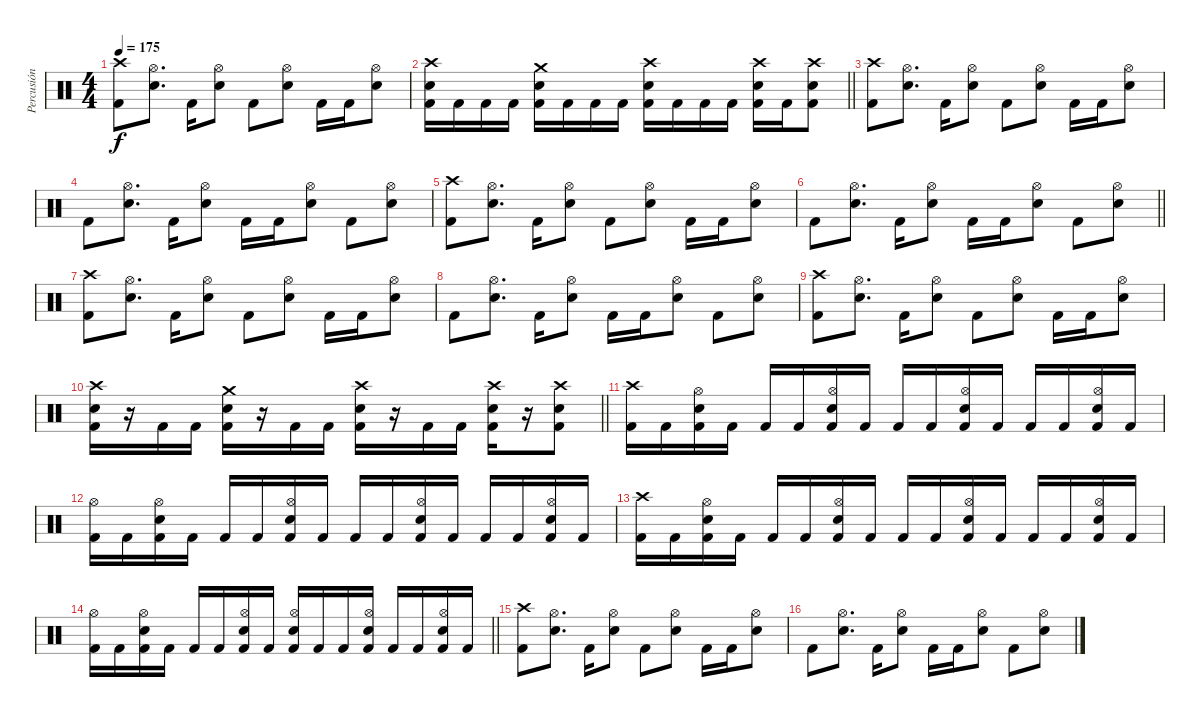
\track ("Percusión" "Percusión") {instrument percussion}
\staff {score}
\articulation defaults
\ts (4 4)
\tempo 175
\clef neutral
\ks c
("Crash high (hit)" "Kick (hit) 2").8{dy f} ("Hi-Hat (open)" "Electric Snare (hit)").8{d} "Kick (hit) 2".16 ("Hi-Hat (open)" "Electric Snare (hit)").8 "Kick (hit) 2".8 ("Hi-Hat (open)" "Electric Snare (hit)").8 "Kick (hit) 2".16 "Kick (hit) 2".16 ("Hi-Hat (open)" "Electric Snare (hit)").8 |
\barLineRight lightlight
("Crash high (hit)" "Electric Snare (hit)" "Kick (hit) 2").16 "Kick (hit) 2".16 "Kick (hit) 2".16 "Kick (hit) 2".16 ("Crash medium (hit)" "Electric Snare (hit)" "Kick (hit) 2").16 "Kick (hit) 2".16 "Kick (hit) 2".16 "Kick (hit) 2".16 ("Crash high (hit)" "Electric Snare (hit)" "Kick (hit) 2").16 "Kick (hit) 2".16 "Kick (hit) 2".16 "Kick (hit) 2".16 ("Crash high (hit)" "Electric Snare (hit)" "Kick (hit) 2").16 "Kick (hit) 2".16 ("Crash high (hit)" "Electric Snare (hit)" "Kick (hit) 2").8 |
("Crash high (hit)" "Kick (hit) 2").8 ("Hi-Hat (open)" "Electric Snare (hit)").8{d} "Kick (hit) 2".16 ("Hi-Hat (open)" "Electric Snare (hit)").8 "Kick (hit) 2".8 ("Hi-Hat (open)" "Electric Snare (hit)").8 "Kick (hit) 2".16 "Kick (hit) 2".16 ("Hi-Hat (open)" "Electric Snare (hit)").8 |
"Kick (hit) 2".8 ("Hi-Hat (open)" "Electric Snare (hit)").8{d} "Kick (hit) 2".16 ("Hi-Hat (open)" "Electric Snare (hit)").8 "Kick (hit) 2".16 "Kick (hit) 2".16 ("Hi-Hat (open)" "Electric Snare (hit)").8 "Kick (hit) 2".8 ("Hi-Hat (open)" "Electric Snare (hit)").8 |
("Crash high (hit)" "Kick (hit) 2").8 ("Hi-Hat (open)" "Electric Snare (hit)").8{d} "Kick (hit) 2".16 ("Hi-Hat (open)" "Electric Snare (hit)").8 "Kick (hit) 2".8 ("Hi-Hat (open)" "Electric Snare (hit)").8 "Kick (hit) 2".16 "Kick (hit) 2".16 ("Hi-Hat (open)" "Electric Snare (hit)").8 |
\barLineRight lightlight "Kick (hit) 2".8
("Hi-Hat (open)" "Electric Snare (hit)").8{d} "Kick (hit) 2".16 ("Hi-Hat (open)" "Electric Snare (hit)").8 "Kick (hit) 2".16 "Kick (hit) 2".16 ("Hi-Hat (open)" "Electric Snare (hit)").8 "Kick (hit) 2".8 ("Hi-Hat (open)" "Electric Snare (hit)").8 |
("Crash high (hit)" "Kick (hit) 2").8 ("Hi-Hat (open)" "Electric Snare (hit)").8{d} "Kick (hit) 2".16 ("Hi-Hat (open)" "Electric Snare (hit)").8 "Kick (hit) 2".8 ("Hi-Hat (open)" "Electric Snare (hit)").8 "Kick (hit) 2".16 "Kick (hit) 2".16 ("Hi-Hat (open)" "Electric Snare (hit)").8 |
"Kick (hit) 2".8 ("Hi-Hat (open)" "Electric Snare (hit)").8{d} "Kick (hit) 2".16 ("Hi-Hat (open)" "Electric Snare (hit)").8 "Kick (hit) 2".16 "Kick (hit) 2".16 ("Hi-Hat (open)" "Electric Snare (hit)").8 "Kick (hit) 2".8 ("Hi-Hat (open)" "Electric Snare (hit)").8 |
("Crash high (hit)" "Kick (hit) 2").8 ("Hi-Hat (open)" "Electric Snare (hit)").8{d} "Kick (hit) 2".16 ("Hi-Hat (open)" "Electric Snare (hit)").8 "Kick (hit) 2".8 ("Hi-Hat (open)" "Electric Snare (hit)").8 "Kick (hit) 2".16 "Kick (hit) 2".16 ("Hi-Hat (open)" "Electric Snare (hit)").8 |
\barLineRight lightlight
("Crash high (hit)" "Electric Snare (hit)" "Kick (hit) 2").16 r.16 "Kick (hit) 2".16 "Kick (hit) 2".16 ("Crash medium (hit)" "Electric Snare (hit)" "Kick (hit) 2").16 r.16 "Kick (hit) 2".16 "Kick (hit) 2".16 ("Crash high (hit)" "Electric Snare (hit)" "Kick (hit) 2").16 r.16 "Kick (hit) 2".16 "Kick (hit) 2".16 ("Crash high (hit)" "Electric Snare (hit)" "Kick (hit) 2").16 r.16 ("Crash high (hit)" "Electric Snare (hit)" "Kick (hit) 2").8 |
("Crash high (hit)" "Kick (hit) 2").16 "Kick (hit) 2".16 ("Hi-Hat (open)" "Electric Snare (hit)" "Kick (hit) 2").16 "Kick (hit) 2".16 "Kick (hit) 2".16 "Kick (hit) 2".16 ("Hi-Hat (open)" "Electric Snare (hit)" "Kick (hit) 2").16 "Kick (hit) 2".16 "Kick (hit) 2".16 "Kick (hit) 2".16 ("Hi-Hat (open)" "Electric Snare (hit)" "Kick (hit) 2").16 "Kick (hit) 2".16 "Kick (hit) 2".16 "Kick (hit) 2".16 ("Hi-Hat (open)" "Electric Snare (hit)" "Kick (hit) 2").16 "Kick (hit) 2".16 |
("Hi-Hat (open)" "Kick (hit) 2").16 "Kick (hit) 2".16 ("Hi-Hat (open)" "Electric Snare (hit)" "Kick (hit) 2").16 "Kick (hit) 2".16 "Kick (hit) 2".16 "Kick (hit) 2".16 ("Hi-Hat (open)" "Electric Snare (hit)" "Kick (hit) 2").16 "Kick (hit) 2".16 "Kick (hit) 2".16 "Kick (hit) 2".16 ("Hi-Hat (open)" "Electric Snare (hit)" "Kick (hit) 2").16 "Kick (hit) 2".16 "Kick (hit) 2".16 "Kick (hit) 2".16 ("Hi-Hat (open)" "Electric Snare (hit)" "Kick (hit) 2").16 "Kick (hit) 2".16 |
("Crash high (hit)" "Kick (hit) 2").16 "Kick (hit) 2".16 ("Hi-Hat (open)" "Electric Snare (hit)" "Kick (hit) 2").16 "Kick (hit) 2".16 "Kick (hit) 2".16 "Kick (hit) 2".16 ("Hi-Hat (open)" "Electric Snare (hit)" "Kick (hit) 2").16 "Kick (hit) 2".16 "Kick (hit) 2".16 "Kick (hit) 2".16 ("Hi-Hat (open)" "Electric Snare (hit)" "Kick (hit) 2").16 "Kick (hit) 2".16 "Kick (hit) 2".16 "Kick (hit) 2".16 ("Hi-Hat (open)" "Electric Snare (hit)" "Kick (hit) 2").16 "Kick (hit) 2".16 |
\barLineRight lightlight
("Hi-Hat (open)" "Kick (hit) 2").16 "Kick (hit) 2".16 ("Hi-Hat (open)" "Electric Snare (hit)" "Kick (hit) 2").16 "Kick (hit) 2".16 "Kick (hit) 2".16 "Kick (hit) 2".16 ("Hi-Hat (open)" "Electric Snare (hit)" "Kick (hit) 2").16 "Kick (hit) 2".16 ("Hi-Hat (open)" "Electric Snare (hit)" "Kick (hit) 2").16 "Kick (hit) 2".16 "Kick (hit) 2".16 ("Hi-Hat (open)" "Electric Snare (hit)" "Kick (hit) 2").16 "Kick (hit) 2".16 "Kick (hit) 2".16 ("Hi-Hat (open)" "Electric Snare (hit)" "Kick (hit) 2").16 "Kick (hit) 2".16 |
("Crash high (hit)" "Kick (hit) 2").8 ("Hi-Hat (open)" "Electric Snare (hit)").8{d} "Kick (hit) 2".16 ("Hi-Hat (open)" "Electric Snare (hit)").8 "Kick (hit) 2".8 ("Hi-Hat (open)" "Electric Snare (hit)").8 "Kick (hit) 2".16 "Kick (hit) 2".16 ("Hi-Hat (open)" "Electric Snare (hit)").8 |
"Kick (hit) 2".8 ("Hi-Hat (open)" "Electric Snare (hit)").8{d} "Kick (hit) 2".16 ("Hi-Hat (open)" "Electric Snare (hit)").8 "Kick (hit) 2".16 "Kick (hit) 2".16 ("Hi-Hat (open)" "Electric Snare (hit)").8 "Kick (hit) 2".8 ("Hi-Hat (open)" "Electric Snare (hit)").8
